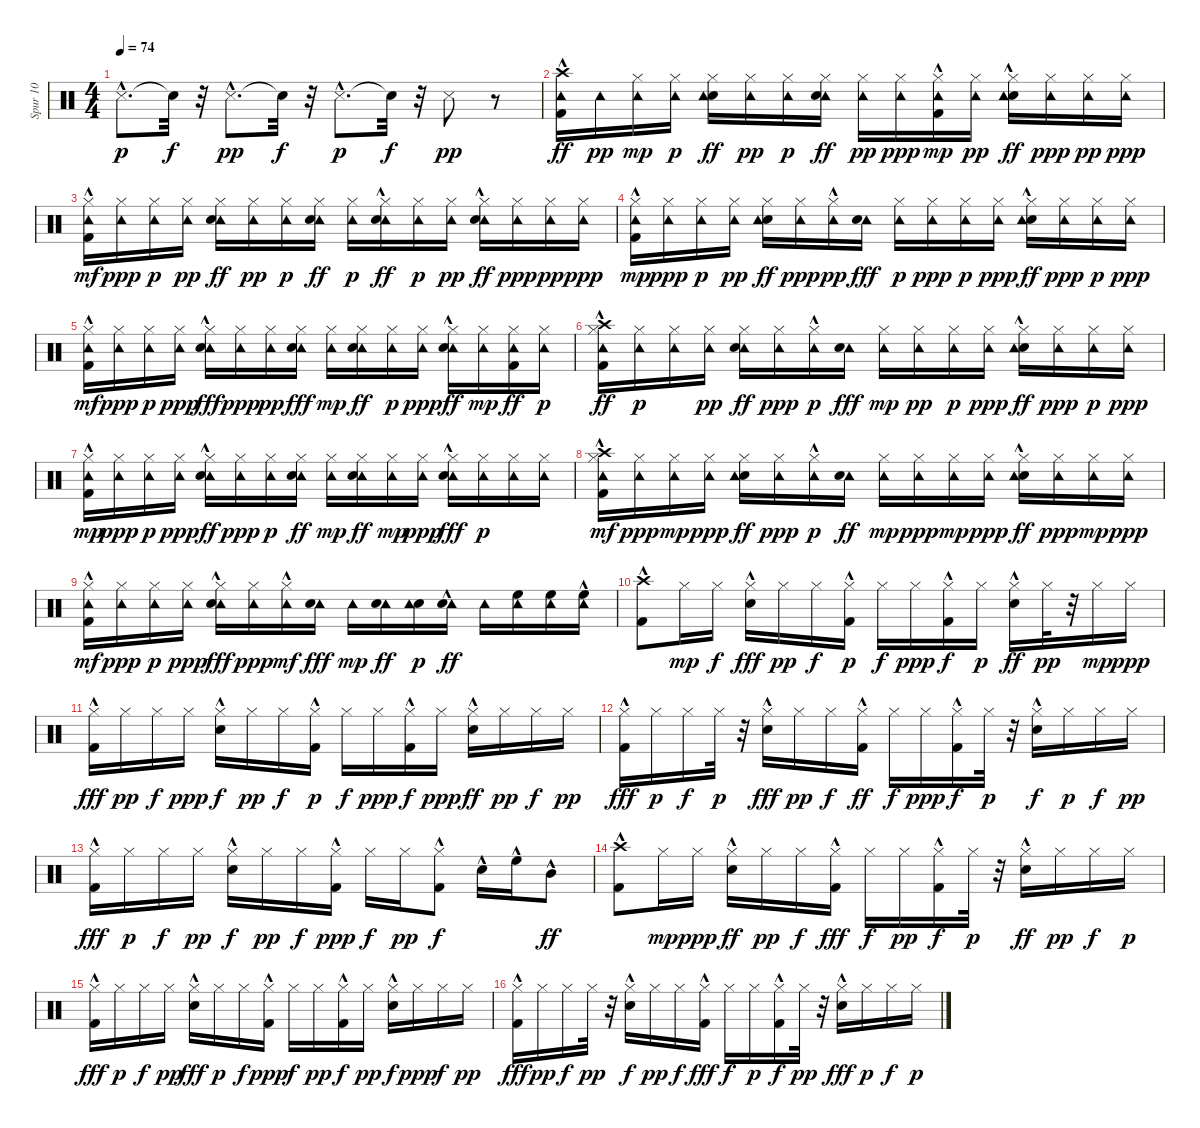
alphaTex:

\track ("Spur 10" "Spur 10") {instrument percussion}
\staff {score}
\articulation defaults
\ts (4 4)
\tempo 74
\clef neutral
\ks c "Snare (side stick) 3"{hac}.8{d dy p} "Snare (hit)"{t}.32{dy f}
r.32 "Snare (side stick) 3"{hac}.8{d dy pp} "Snare (hit)"{t}.32{dy f} r.32 "Snare (side stick) 3"{hac}.8{d dy p} "Snare (hit)"{t}.32{dy f} r.32 "Snare (side stick) 3".8{dy pp} r.8 |
("Kick (hit) 2"{hac} "Tambourine (hit)" "Crash high (hit)").16{dy ff} "Tambourine (hit)".16{dy pp} ("Tambourine (hit)" "Hi-Hat (closed)").16{dy mp} ("Hi-Hat (closed)" "Tambourine (hit)").16{dy p} ("Hi-Hat (closed)" "Snare (hit) 2" "Tambourine (hit)").16{dy ff} ("Hi-Hat (closed)" "Tambourine (hit)").16{dy pp} ("Hi-Hat (closed)" "Tambourine (hit)").16{dy p} ("Hi-Hat (closed)" "Tambourine (hit)" "Snare (hit) 2").16{dy ff} ("Hi-Hat (closed)" "Tambourine (hit)").16{dy pp} ("Hi-Hat (closed)" "Tambourine (hit)").16{dy ppp} ("Hi-Hat (closed)" "Kick (hit) 2"{hac} "Tambourine (hit)").16{dy mp} ("Hi-Hat (closed)" "Tambourine (hit)").16{dy pp} ("Hi-Hat (closed)" "Snare (hit) 2"{hac} "Tambourine (hit)").16{dy ff} ("Hi-Hat (closed)" "Tambourine (hit)").16{dy ppp} ("Hi-Hat (closed)" "Tambourine (hit)").16{dy pp} ("Hi-Hat (closed)" "Tambourine (hit)").16{dy ppp} |
("Hi-Hat (closed)" "Kick (hit) 2"{hac} "Tambourine (hit)").16{dy mf} ("Hi-Hat (closed)" "Tambourine (hit)").16{dy ppp} ("Hi-Hat (closed)" "Tambourine (hit)").16{dy p} ("Hi-Hat (closed)" "Tambourine (hit)").16{dy pp} ("Hi-Hat (closed)" "Tambourine (hit)" "Snare (hit) 2").16{dy ff} ("Hi-Hat (closed)" "Tambourine (hit)").16{dy pp} ("Hi-Hat (closed)" "Tambourine (hit)").16{dy p} ("Tambourine (hit)" "Snare (hit) 2" "Hi-Hat (closed)").16{dy ff} ("Hi-Hat (closed)" "Tambourine (hit)").16{dy p} ("Hi-Hat (closed)" "Tambourine (hit)" "Snare (hit) 2"{hac}).16{dy ff} ("Hi-Hat (closed)" "Tambourine (hit)").16{dy p} ("Hi-Hat (closed)" "Tambourine (hit)").16{dy pp} ("Hi-Hat (closed)" "Tambourine (hit)" "Snare (hit) 2"{hac}).16{dy ff} ("Hi-Hat (closed)" "Tambourine (hit)").16{dy ppp} ("Hi-Hat (closed)" "Tambourine (hit)").16{dy pp} ("Tambourine (hit)" "Hi-Hat (closed)").16{dy ppp} |
("Kick (hit) 2"{hac} "Hi-Hat (closed)" "Tambourine (hit)").16{dy mp} ("Hi-Hat (closed)" "Tambourine (hit)").16{dy ppp} ("Hi-Hat (closed)" "Tambourine (hit)").16{dy p} ("Hi-Hat (closed)" "Tambourine (hit)").16{dy pp} ("Hi-Hat (closed)" "Snare (hit) 2" "Tambourine (hit)").16{dy ff} ("Hi-Hat (closed)" "Tambourine (hit)").16{dy ppp} ("Hi-Hat (closed)"{hac} "Tambourine (hit)").16{dy pp} ("Tambourine (hit)" "Snare (hit) 2").16{dy fff} ("Hi-Hat (closed)" "Tambourine (hit)").16{dy p} ("Hi-Hat (closed)" "Tambourine (hit)").16{dy ppp} ("Hi-Hat (closed)" "Tambourine (hit)").16{dy p} ("Hi-Hat (closed)" "Tambourine (hit)").16{dy ppp} ("Hi-Hat (closed)" "Snare (hit) 2"{hac} "Tambourine (hit)").16{dy ff} ("Hi-Hat (closed)" "Tambourine (hit)").16{dy ppp} ("Hi-Hat (closed)" "Tambourine (hit)").16{dy p} ("Hi-Hat (closed)" "Tambourine (hit)").16{dy ppp} |
("Kick (hit) 2"{hac} "Hi-Hat (closed)" "Tambourine (hit)").16{dy mf} ("Hi-Hat (closed)" "Tambourine (hit)").16{dy ppp} ("Hi-Hat (closed)" "Tambourine (hit)").16{dy p} ("Hi-Hat (closed)" "Tambourine (hit)").16{dy ppp} ("Hi-Hat (closed)" "Tambourine (hit)" "Snare (hit) 2"{hac}).16{dy fff} ("Hi-Hat (closed)" "Tambourine (hit)").16{dy ppp} ("Hi-Hat (closed)" "Tambourine (hit)").16{dy pp} ("Tambourine (hit)" "Hi-Hat (closed)" "Snare (hit) 2").16{dy fff} ("Hi-Hat (closed)" "Tambourine (hit)").16{dy mp} ("Hi-Hat (closed)" "Tambourine (hit)" "Snare (hit) 2").16{dy ff} ("Hi-Hat (closed)" "Tambourine (hit)").16{dy p} ("Hi-Hat (closed)" "Tambourine (hit)").16{dy ppp} ("Hi-Hat (closed)" "Tambourine (hit)" "Snare (hit) 2"{hac}).16{dy ff} ("Tambourine (hit)" "Hi-Hat (closed)").16{dy mp} ("Kick (hit) 2" "Hi-Hat (closed)" "Tambourine (hit)").16{dy ff} ("Tambourine (hit)" "Hi-Hat (closed)").16{dy p} |
("Hi-Hat (closed)" "Kick (hit) 2"{hac} "Tambourine (hit)" "Crash high (hit)").16{dy ff} ("Hi-Hat (closed)" "Tambourine (hit)").16{dy p} ("Hi-Hat (closed)" "Tambourine (hit)").16 ("Hi-Hat (closed)" "Tambourine (hit)").16{dy pp} ("Tambourine (hit)" "Hi-Hat (closed)" "Snare (hit) 2").16{dy ff} ("Hi-Hat (closed)" "Tambourine (hit)").16{dy ppp} ("Hi-Hat (closed)"{hac} "Tambourine (hit)").16{dy p} ("Tambourine (hit)" "Snare (hit) 2").16{dy fff} ("Hi-Hat (closed)" "Tambourine (hit)").16{dy mp} ("Tambourine (hit)" "Hi-Hat (closed)").16{dy pp} ("Hi-Hat (closed)" "Tambourine (hit)").16{dy p} ("Hi-Hat (closed)" "Tambourine (hit)").16{dy ppp} ("Hi-Hat (closed)" "Snare (hit) 2"{hac} "Tambourine (hit)").16{dy ff} ("Hi-Hat (closed)" "Tambourine (hit)").16{dy ppp} ("Hi-Hat (closed)" "Tambourine (hit)").16{dy p} ("Hi-Hat (closed)" "Tambourine (hit)").16{dy ppp} |
("Kick (hit) 2"{hac} "Hi-Hat (closed)" "Tambourine (hit)").16{dy mp} ("Hi-Hat (closed)" "Tambourine (hit)").16{dy ppp} ("Hi-Hat (closed)" "Tambourine (hit)").16{dy p} ("Hi-Hat (closed)" "Tambourine (hit)").16{dy ppp} ("Hi-Hat (closed)" "Tambourine (hit)" "Snare (hit) 2"{hac}).16{dy ff} ("Hi-Hat (closed)" "Tambourine (hit)").16{dy ppp} ("Hi-Hat (closed)" "Tambourine (hit)").16{dy p} ("Tambourine (hit)" "Hi-Hat (closed)" "Snare (hit) 2").16{dy ff} ("Hi-Hat (closed)" "Tambourine (hit)").16{dy mp} ("Hi-Hat (closed)" "Tambourine (hit)" "Snare (hit) 2").16{dy ff} ("Hi-Hat (closed)" "Tambourine (hit)").16{dy mp} ("Hi-Hat (closed)" "Tambourine (hit)").16{dy ppp} ("Hi-Hat (closed)" "Tambourine (hit)" "Snare (hit) 2"{hac}).16{dy fff} ("Tambourine (hit)" "Hi-Hat (closed)").16{dy p} ("Hi-Hat (closed)" "Tambourine (hit)").16 ("Tambourine (hit)" "Hi-Hat (closed)").16 |
("Kick (hit) 2"{hac} "Hi-Hat (closed)" "Tambourine (hit)" "Crash high (hit)").16{dy mf} ("Hi-Hat (closed)" "Tambourine (hit)").16{dy ppp} ("Hi-Hat (closed)" "Tambourine (hit)").16{dy mp} ("Hi-Hat (closed)" "Tambourine (hit)").16{dy ppp} ("Hi-Hat (closed)" "Snare (hit) 2" "Tambourine (hit)").16{dy ff} ("Hi-Hat (closed)" "Tambourine (hit)").16{dy ppp} ("Hi-Hat (closed)"{hac} "Tambourine (hit)").16{dy p} ("Tambourine (hit)" "Snare (hit) 2").16{dy ff} ("Hi-Hat (closed)" "Tambourine (hit)").16{dy mp} ("Hi-Hat (closed)" "Tambourine (hit)").16{dy ppp} ("Hi-Hat (closed)" "Tambourine (hit)").16{dy mp} ("Hi-Hat (closed)" "Tambourine (hit)").16{dy ppp} ("Hi-Hat (closed)" "Snare (hit) 2"{hac} "Tambourine (hit)").16{dy ff} ("Hi-Hat (closed)" "Tambourine (hit)").16{dy ppp} ("Hi-Hat (closed)" "Tambourine (hit)").16{dy mp} ("Hi-Hat (closed)" "Tambourine (hit)").16{dy ppp} |
("Kick (hit) 2"{hac} "Hi-Hat (closed)" "Tambourine (hit)").16{dy mf} ("Hi-Hat (closed)" "Tambourine (hit)").16{dy ppp} ("Hi-Hat (closed)" "Tambourine (hit)").16{dy p} ("Hi-Hat (closed)" "Tambourine (hit)").16{dy ppp} ("Hi-Hat (closed)" "Tambourine (hit)" "Snare (hit) 2"{hac}).16{dy fff} ("Hi-Hat (closed)" "Tambourine (hit)").16{dy ppp} ("Hi-Hat (closed)"{hac} "Tambourine (hit)").16{dy mf} ("Tambourine (hit)" "Snare (hit) 2").16{dy fff} "Tambourine (hit)".16{dy mp} ("Tambourine (hit)" "Snare (hit) 2").16{dy ff} ("Snare (hit) 2" "Tambourine (hit)").16{dy p} ("Tambourine (hit)" "Snare (hit) 2"{hac}).16{dy ff} "Tambourine (hit)".16 ("Tambourine (hit)" "High Floor Tom (hit)").16 ("Tambourine (hit)" "High Floor Tom (hit)").16 ("Tambourine (hit)"{hac} "High Floor Tom (hit)"{hac}).16 |
("Kick (hit) 2"{hac} "Crash high (hit)").8 "Hi-Hat (closed)".16{dy mp} "Hi-Hat (closed)".16{dy f} ("Hi-Hat (closed)" "Snare (hit) 2"{hac}).16{dy fff} "Hi-Hat (closed)".16{dy pp} "Hi-Hat (closed)".16{dy f} ("Kick (hit) 2"{hac} "Hi-Hat (closed)").16{dy p} "Hi-Hat (closed)".16{dy f} "Hi-Hat (closed)".16{dy ppp} ("Hi-Hat (closed)" "Kick (hit) 2"{hac}).16{dy f} "Hi-Hat (closed)".16{dy p} ("Hi-Hat (closed)" "Snare (hit) 2"{hac}).16{dy ff} "Hi-Hat (closed)".32{dy pp} r.32 "Hi-Hat (closed)".16{dy mp} "Hi-Hat (closed)".16{dy ppp} |
("Hi-Hat (closed)" "Kick (hit) 2"{hac}).16{dy fff} "Hi-Hat (closed)".16{dy pp} "Hi-Hat (closed)".16{dy f} "Hi-Hat (closed)".16{dy ppp} ("Hi-Hat (closed)" "Snare (hit) 2"{hac}).16{dy f} "Hi-Hat (closed)".16{dy pp} "Hi-Hat (closed)".16{dy f} ("Kick (hit) 2"{hac} "Hi-Hat (closed)").16{dy p} "Hi-Hat (closed)".16{dy f} "Hi-Hat (closed)".16{dy ppp} ("Hi-Hat (closed)" "Kick (hit) 2"{hac}).16{dy f} "Hi-Hat (closed)".16{dy ppp} ("Hi-Hat (closed)" "Snare (hit) 2"{hac}).16{dy ff} "Hi-Hat (closed)".16{dy pp} "Hi-Hat (closed)".16{dy f} "Hi-Hat (closed)".16{dy pp} |
("Hi-Hat (closed)" "Kick (hit) 2"{hac}).16{dy fff} "Hi-Hat (closed)".16{dy p} "Hi-Hat (closed)".16{dy f} "Hi-Hat (closed)".32{dy p} r.32 ("Hi-Hat (closed)" "Snare (hit) 2"{hac}).16{dy fff} "Hi-Hat (closed)".16{dy pp} "Hi-Hat (closed)".16{dy f} ("Hi-Hat (closed)" "Kick (hit) 2"{hac}).16{dy ff} "Hi-Hat (closed)".16{dy f} "Hi-Hat (closed)".16{dy ppp} ("Hi-Hat (closed)" "Kick (hit) 2"{hac}).16{dy f} "Hi-Hat (closed)".32{dy p} r.32 ("Hi-Hat (closed)" "Snare (hit) 2"{hac}).16{dy f} "Hi-Hat (closed)".16{dy p} "Hi-Hat (closed)".16{dy f} "Hi-Hat (closed)".16{dy pp} |
("Hi-Hat (closed)" "Kick (hit) 2"{hac}).16{dy fff} "Hi-Hat (closed)".16{dy p} "Hi-Hat (closed)".16{dy f} "Hi-Hat (closed)".16{dy pp} ("Hi-Hat (closed)" "Snare (hit) 2"{hac}).16{dy f} "Hi-Hat (closed)".16{dy pp} "Hi-Hat (closed)".16{dy f} ("Kick (hit) 2"{hac} "Hi-Hat (closed)").16{dy ppp} "Hi-Hat (closed)".16{dy f} "Hi-Hat (closed)".16{dy pp} ("Hi-Hat (closed)"{hac} "Kick (hit) 2"{hac}).8{dy f} "Snare (hit) 2"{hac}.16 "High Floor Tom (hit)"{hac}.16 "Mid Tom (hit)"{hac}.8{dy ff} |
("Kick (hit) 2"{hac} "Crash high (hit)").8 "Hi-Hat (closed)".16{dy mp} "Hi-Hat (closed)".16{dy ppp} ("Hi-Hat (closed)" "Snare (hit) 2"{hac}).16{dy ff} "Hi-Hat (closed)".16{dy pp} "Hi-Hat (closed)".16{dy f} ("Hi-Hat (closed)" "Kick (hit) 2"{hac}).16{dy fff} "Hi-Hat (closed)".16{dy f} "Hi-Hat (closed)".16{dy pp} ("Kick (hit) 2"{hac} "Hi-Hat (closed)").16{dy f} "Hi-Hat (closed)".32{dy p} r.32 ("Hi-Hat (closed)" "Snare (hit) 2"{hac}).16{dy ff} "Hi-Hat (closed)".16{dy pp} "Hi-Hat (closed)".16{dy f} "Hi-Hat (closed)".16{dy p} |
("Hi-Hat (closed)" "Kick (hit) 2"{hac}).16{dy fff} "Hi-Hat (closed)".16{dy p} "Hi-Hat (closed)".16{dy f} "Hi-Hat (closed)".16{dy pp} ("Hi-Hat (closed)" "Snare (hit) 2"{hac}).16{dy fff} "Hi-Hat (closed)".16{dy p} "Hi-Hat (closed)".16{dy f} ("Kick (hit) 2"{hac} "Hi-Hat (closed)").16{dy ppp} "Hi-Hat (closed)".16{dy f} "Hi-Hat (closed)".16{dy pp} ("Hi-Hat (closed)" "Kick (hit) 2"{hac}).16{dy f} "Hi-Hat (closed)".16{dy pp} ("Hi-Hat (closed)" "Snare (hit) 2"{hac}).16{dy f} "Hi-Hat (closed)".16{dy ppp} "Hi-Hat (closed)".16{dy f} "Hi-Hat (closed)".16{dy pp} |
("Hi-Hat (closed)" "Kick (hit) 2"{hac}).16{dy fff} "Hi-Hat (closed)".16{dy pp} "Hi-Hat (closed)".16{dy f} "Hi-Hat (closed)".32{dy pp} r.32 ("Hi-Hat (closed)" "Snare (hit) 2"{hac}).16{dy f} "Hi-Hat (closed)".16{dy pp} "Hi-Hat (closed)".16{dy f} ("Hi-Hat (closed)" "Kick (hit) 2"{hac}).16{dy fff} "Hi-Hat (closed)".16{dy f} "Hi-Hat (closed)".16{dy p} ("Hi-Hat (closed)" "Kick (hit) 2"{hac}).16{dy f} "Hi-Hat (closed)".32{dy pp} r.32 ("Hi-Hat (closed)" "Snare (hit) 2"{hac}).16{dy fff} "Hi-Hat (closed)".16{dy p} "Hi-Hat (closed)".16{dy f} "Hi-Hat (closed)".16{dy p}
